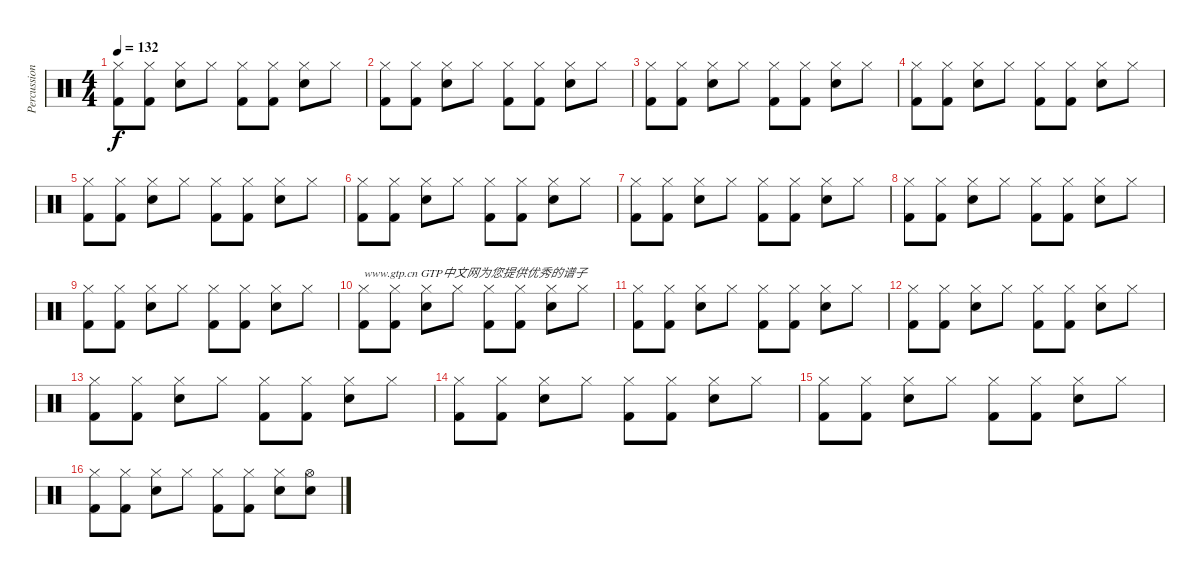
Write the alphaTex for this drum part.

\track ("Percussion" "Percussion") {instrument percussion}
\staff {score}
\articulation defaults
\ts (4 4)
\tempo 132
\clef neutral
\ks c
("Hi-Hat (closed)" "Kick (hit) 2").8{dy f} ("Hi-Hat (closed)" "Kick (hit) 2").8 ("Hi-Hat (closed)" "Metronome (bell)").8 "Hi-Hat (closed)".8 ("Hi-Hat (closed)" "Kick (hit) 2").8 ("Hi-Hat (closed)" "Kick (hit) 2").8 ("Hi-Hat (closed)" "Metronome (bell)").8 "Hi-Hat (closed)".8 |
("Hi-Hat (closed)" "Kick (hit) 2").8 ("Hi-Hat (closed)" "Kick (hit) 2").8 ("Hi-Hat (closed)" "Metronome (bell)").8 "Hi-Hat (closed)".8 ("Hi-Hat (closed)" "Kick (hit) 2").8 ("Hi-Hat (closed)" "Kick (hit) 2").8 ("Hi-Hat (closed)" "Metronome (bell)").8 "Hi-Hat (closed)".8 |
("Hi-Hat (closed)" "Kick (hit) 2").8 ("Hi-Hat (closed)" "Kick (hit) 2").8 ("Hi-Hat (closed)" "Metronome (bell)").8 "Hi-Hat (closed)".8 ("Hi-Hat (closed)" "Kick (hit) 2").8 ("Hi-Hat (closed)" "Kick (hit) 2").8 ("Hi-Hat (closed)" "Metronome (bell)").8 "Hi-Hat (closed)".8 |
("Hi-Hat (closed)" "Kick (hit) 2").8 ("Hi-Hat (closed)" "Kick (hit) 2").8 ("Hi-Hat (closed)" "Metronome (bell)").8 "Hi-Hat (closed)".8 ("Hi-Hat (closed)" "Kick (hit) 2").8 ("Hi-Hat (closed)" "Kick (hit) 2").8 ("Hi-Hat (closed)" "Metronome (bell)").8 "Hi-Hat (closed)".8 |
("Hi-Hat (closed)" "Kick (hit) 2").8 ("Hi-Hat (closed)" "Kick (hit) 2").8 ("Hi-Hat (closed)" "Metronome (bell)").8 "Hi-Hat (closed)".8 ("Hi-Hat (closed)" "Kick (hit) 2").8 ("Hi-Hat (closed)" "Kick (hit) 2").8 ("Hi-Hat (closed)" "Metronome (bell)").8 "Hi-Hat (closed)".8 |
("Hi-Hat (closed)" "Kick (hit) 2").8 ("Hi-Hat (closed)" "Kick (hit) 2").8 ("Hi-Hat (closed)" "Metronome (bell)").8 "Hi-Hat (closed)".8 ("Hi-Hat (closed)" "Kick (hit) 2").8 ("Hi-Hat (closed)" "Kick (hit) 2").8 ("Hi-Hat (closed)" "Metronome (bell)").8 "Hi-Hat (closed)".8 |
("Hi-Hat (closed)" "Kick (hit) 2").8 ("Hi-Hat (closed)" "Kick (hit) 2").8 ("Hi-Hat (closed)" "Metronome (bell)").8 "Hi-Hat (closed)".8 ("Hi-Hat (closed)" "Kick (hit) 2").8 ("Hi-Hat (closed)" "Kick (hit) 2").8 ("Hi-Hat (closed)" "Metronome (bell)").8 "Hi-Hat (closed)".8 |
("Hi-Hat (closed)" "Kick (hit) 2").8 ("Hi-Hat (closed)" "Kick (hit) 2").8 ("Hi-Hat (closed)" "Metronome (bell)").8 "Hi-Hat (closed)".8 ("Hi-Hat (closed)" "Kick (hit) 2").8 ("Hi-Hat (closed)" "Kick (hit) 2").8 ("Hi-Hat (closed)" "Metronome (bell)").8 "Hi-Hat (closed)".8 |
("Hi-Hat (closed)" "Kick (hit) 2").8 ("Hi-Hat (closed)" "Kick (hit) 2").8 ("Hi-Hat (closed)" "Metronome (bell)").8 "Hi-Hat (closed)".8 ("Hi-Hat (closed)" "Kick (hit) 2").8 ("Hi-Hat (closed)" "Kick (hit) 2").8 ("Hi-Hat (closed)" "Metronome (bell)").8 "Hi-Hat (closed)".8 |
("Hi-Hat (closed)" "Kick (hit) 2").8{txt "www.gtp.cn GTP中文网为您提供优秀的谱子"} ("Hi-Hat (closed)" "Kick (hit) 2").8 ("Hi-Hat (closed)" "Metronome (bell)").8 "Hi-Hat (closed)".8 ("Hi-Hat (closed)" "Kick (hit) 2").8 ("Hi-Hat (closed)" "Kick (hit) 2").8 ("Hi-Hat (closed)" "Metronome (bell)").8 "Hi-Hat (closed)".8 |
("Hi-Hat (closed)" "Kick (hit) 2").8 ("Hi-Hat (closed)" "Kick (hit) 2").8 ("Hi-Hat (closed)" "Metronome (bell)").8 "Hi-Hat (closed)".8 ("Hi-Hat (closed)" "Kick (hit) 2").8 ("Hi-Hat (closed)" "Kick (hit) 2").8 ("Hi-Hat (closed)" "Metronome (bell)").8 "Hi-Hat (closed)".8 |
("Hi-Hat (closed)" "Kick (hit) 2").8 ("Hi-Hat (closed)" "Kick (hit) 2").8 ("Hi-Hat (closed)" "Metronome (bell)").8 "Hi-Hat (closed)".8 ("Hi-Hat (closed)" "Kick (hit) 2").8 ("Hi-Hat (closed)" "Kick (hit) 2").8 ("Hi-Hat (closed)" "Metronome (bell)").8 "Hi-Hat (closed)".8 |
("Hi-Hat (closed)" "Kick (hit) 2").8 ("Hi-Hat (closed)" "Kick (hit) 2").8 ("Hi-Hat (closed)" "Metronome (bell)").8 "Hi-Hat (closed)".8 ("Hi-Hat (closed)" "Kick (hit) 2").8 ("Hi-Hat (closed)" "Kick (hit) 2").8 ("Hi-Hat (closed)" "Metronome (bell)").8 "Hi-Hat (closed)".8 |
("Hi-Hat (closed)" "Kick (hit) 2").8 ("Hi-Hat (closed)" "Kick (hit) 2").8 ("Hi-Hat (closed)" "Metronome (bell)").8 "Hi-Hat (closed)".8 ("Hi-Hat (closed)" "Kick (hit) 2").8 ("Hi-Hat (closed)" "Kick (hit) 2").8 ("Hi-Hat (closed)" "Metronome (bell)").8 "Hi-Hat (closed)".8 |
("Hi-Hat (closed)" "Kick (hit) 2").8 ("Hi-Hat (closed)" "Kick (hit) 2").8 ("Hi-Hat (closed)" "Metronome (bell)").8 "Hi-Hat (closed)".8 ("Hi-Hat (closed)" "Kick (hit) 2").8 ("Hi-Hat (closed)" "Kick (hit) 2").8 ("Hi-Hat (closed)" "Metronome (bell)").8 "Hi-Hat (closed)".8 |
("Hi-Hat (closed)" "Kick (hit) 2").8 ("Hi-Hat (closed)" "Kick (hit) 2").8 ("Hi-Hat (closed)" "Metronome (bell)").8 "Hi-Hat (closed)".8 ("Hi-Hat (closed)" "Kick (hit) 2").8 ("Hi-Hat (closed)" "Kick (hit) 2").8 ("Hi-Hat (closed)" "Metronome (bell)").8 ("Hi-Hat (open)" "Metronome (bell)").8
